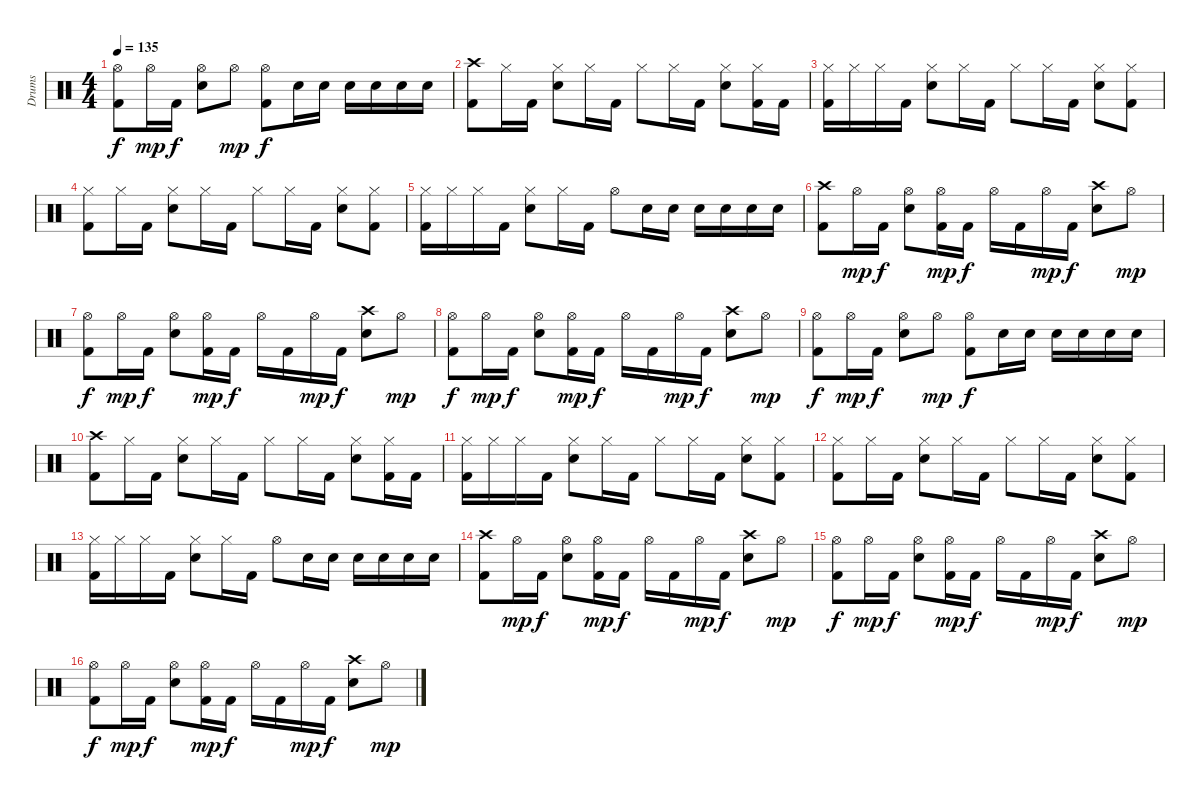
\track ("Drums" "Drums") {instrument percussion}
\staff {score}
\articulation defaults
\ts (4 4)
\tempo 135
\clef neutral
\ks c
("Hi-Hat (open)" "Kick (hit) 2").8{dy f} "Hi-Hat (open)".16{dy mp} "Kick (hit) 2".16{dy f} ("Hi-Hat (open)" "Electric Snare (hit)").8 "Hi-Hat (open)".8{dy mp} ("Hi-Hat (open)" "Kick (hit) 2").8{dy f} "Electric Snare (hit)".16 "Electric Snare (hit)".16 "Electric Snare (hit)".16 "Electric Snare (hit)".16 "Electric Snare (hit)".16 "Electric Snare (hit)".16 |
("Crash high (hit)" "Kick (hit) 2").8 "Hi-Hat (closed)".16 "Kick (hit) 2".16 ("Hi-Hat (closed)" "Electric Snare (hit)").8 "Hi-Hat (closed)".16 "Kick (hit) 2".16 "Hi-Hat (closed)".8 "Hi-Hat (closed)".16 "Kick (hit) 2".16 ("Hi-Hat (closed)" "Electric Snare (hit)").8 ("Hi-Hat (closed)" "Kick (hit) 2").16 "Kick (hit) 2".16 |
("Hi-Hat (closed)" "Kick (hit) 2").16 "Hi-Hat (closed)".16 "Hi-Hat (closed)".16 "Kick (hit) 2".16 ("Hi-Hat (closed)" "Electric Snare (hit)").8 "Hi-Hat (closed)".16 "Kick (hit) 2".16 "Hi-Hat (closed)".8 "Hi-Hat (closed)".16 "Kick (hit) 2".16 ("Hi-Hat (closed)" "Electric Snare (hit)").8 ("Hi-Hat (closed)" "Kick (hit) 2").8 |
("Hi-Hat (closed)" "Kick (hit) 2").8 "Hi-Hat (closed)".16 "Kick (hit) 2".16 ("Hi-Hat (closed)" "Electric Snare (hit)").8 "Hi-Hat (closed)".16 "Kick (hit) 2".16 "Hi-Hat (closed)".8 "Hi-Hat (closed)".16 "Kick (hit) 2".16 ("Hi-Hat (closed)" "Electric Snare (hit)").8 ("Hi-Hat (closed)" "Kick (hit) 2").8 |
("Hi-Hat (closed)" "Kick (hit) 2").16 "Hi-Hat (closed)".16 "Hi-Hat (closed)".16 "Kick (hit) 2".16 ("Hi-Hat (closed)" "Electric Snare (hit)").8 "Hi-Hat (closed)".16 "Kick (hit) 2".16 "Hi-Hat (open)".8 "Electric Snare (hit)".16 "Electric Snare (hit)".16 "Electric Snare (hit)".16 "Electric Snare (hit)".16 "Electric Snare (hit)".16 "Electric Snare (hit)".16 |
("Crash high (hit)" "Kick (hit) 2").8 "Hi-Hat (open)".16{dy mp} "Kick (hit) 2".16{dy f} ("Hi-Hat (open)" "Electric Snare (hit)").8 ("Hi-Hat (open)" "Kick (hit) 2").16{dy mp} "Kick (hit) 2".16{dy f} "Hi-Hat (open)".16 "Kick (hit) 2".16 "Hi-Hat (open)".16{dy mp} "Kick (hit) 2".16{dy f} ("Crash high (hit)" "Electric Snare (hit)").8 "Hi-Hat (open)".8{dy mp} |
("Hi-Hat (open)" "Kick (hit) 2").8{dy f} "Hi-Hat (open)".16{dy mp} "Kick (hit) 2".16{dy f} ("Hi-Hat (open)" "Electric Snare (hit)").8 ("Hi-Hat (open)" "Kick (hit) 2").16{dy mp} "Kick (hit) 2".16{dy f} "Hi-Hat (open)".16 "Kick (hit) 2".16 "Hi-Hat (open)".16{dy mp} "Kick (hit) 2".16{dy f} ("Crash high (hit)" "Electric Snare (hit)").8 "Hi-Hat (open)".8{dy mp} |
("Hi-Hat (open)" "Kick (hit) 2").8{dy f} "Hi-Hat (open)".16{dy mp} "Kick (hit) 2".16{dy f} ("Hi-Hat (open)" "Electric Snare (hit)").8 ("Hi-Hat (open)" "Kick (hit) 2").16{dy mp} "Kick (hit) 2".16{dy f} "Hi-Hat (open)".16 "Kick (hit) 2".16 "Hi-Hat (open)".16{dy mp} "Kick (hit) 2".16{dy f} ("Crash high (hit)" "Electric Snare (hit)").8 "Hi-Hat (open)".8{dy mp} |
("Hi-Hat (open)" "Kick (hit) 2").8{dy f} "Hi-Hat (open)".16{dy mp} "Kick (hit) 2".16{dy f} ("Hi-Hat (open)" "Electric Snare (hit)").8 "Hi-Hat (open)".8{dy mp} ("Hi-Hat (open)" "Kick (hit) 2").8{dy f} "Electric Snare (hit)".16 "Electric Snare (hit)".16 "Electric Snare (hit)".16 "Electric Snare (hit)".16 "Electric Snare (hit)".16 "Electric Snare (hit)".16 |
("Crash high (hit)" "Kick (hit) 2").8 "Hi-Hat (closed)".16 "Kick (hit) 2".16 ("Hi-Hat (closed)" "Electric Snare (hit)").8 "Hi-Hat (closed)".16 "Kick (hit) 2".16 "Hi-Hat (closed)".8 "Hi-Hat (closed)".16 "Kick (hit) 2".16 ("Hi-Hat (closed)" "Electric Snare (hit)").8 ("Hi-Hat (closed)" "Kick (hit) 2").16 "Kick (hit) 2".16 |
("Hi-Hat (closed)" "Kick (hit) 2").16 "Hi-Hat (closed)".16 "Hi-Hat (closed)".16 "Kick (hit) 2".16 ("Hi-Hat (closed)" "Electric Snare (hit)").8 "Hi-Hat (closed)".16 "Kick (hit) 2".16 "Hi-Hat (closed)".8 "Hi-Hat (closed)".16 "Kick (hit) 2".16 ("Hi-Hat (closed)" "Electric Snare (hit)").8 ("Hi-Hat (closed)" "Kick (hit) 2").8 |
("Hi-Hat (closed)" "Kick (hit) 2").8 "Hi-Hat (closed)".16 "Kick (hit) 2".16 ("Hi-Hat (closed)" "Electric Snare (hit)").8 "Hi-Hat (closed)".16 "Kick (hit) 2".16 "Hi-Hat (closed)".8 "Hi-Hat (closed)".16 "Kick (hit) 2".16 ("Hi-Hat (closed)" "Electric Snare (hit)").8 ("Hi-Hat (closed)" "Kick (hit) 2").8 |
("Hi-Hat (closed)" "Kick (hit) 2").16 "Hi-Hat (closed)".16 "Hi-Hat (closed)".16 "Kick (hit) 2".16 ("Hi-Hat (closed)" "Electric Snare (hit)").8 "Hi-Hat (closed)".16 "Kick (hit) 2".16 "Hi-Hat (open)".8 "Electric Snare (hit)".16 "Electric Snare (hit)".16 "Electric Snare (hit)".16 "Electric Snare (hit)".16 "Electric Snare (hit)".16 "Electric Snare (hit)".16 |
("Crash high (hit)" "Kick (hit) 2").8 "Hi-Hat (open)".16{dy mp} "Kick (hit) 2".16{dy f} ("Hi-Hat (open)" "Electric Snare (hit)").8 ("Hi-Hat (open)" "Kick (hit) 2").16{dy mp} "Kick (hit) 2".16{dy f} "Hi-Hat (open)".16 "Kick (hit) 2".16 "Hi-Hat (open)".16{dy mp} "Kick (hit) 2".16{dy f} ("Crash high (hit)" "Electric Snare (hit)").8 "Hi-Hat (open)".8{dy mp} |
("Hi-Hat (open)" "Kick (hit) 2").8{dy f} "Hi-Hat (open)".16{dy mp} "Kick (hit) 2".16{dy f} ("Hi-Hat (open)" "Electric Snare (hit)").8 ("Hi-Hat (open)" "Kick (hit) 2").16{dy mp} "Kick (hit) 2".16{dy f} "Hi-Hat (open)".16 "Kick (hit) 2".16 "Hi-Hat (open)".16{dy mp} "Kick (hit) 2".16{dy f} ("Crash high (hit)" "Electric Snare (hit)").8 "Hi-Hat (open)".8{dy mp} |
("Hi-Hat (open)" "Kick (hit) 2").8{dy f} "Hi-Hat (open)".16{dy mp} "Kick (hit) 2".16{dy f} ("Hi-Hat (open)" "Electric Snare (hit)").8 ("Hi-Hat (open)" "Kick (hit) 2").16{dy mp} "Kick (hit) 2".16{dy f} "Hi-Hat (open)".16 "Kick (hit) 2".16 "Hi-Hat (open)".16{dy mp} "Kick (hit) 2".16{dy f} ("Crash high (hit)" "Electric Snare (hit)").8 "Hi-Hat (open)".8{dy mp}
